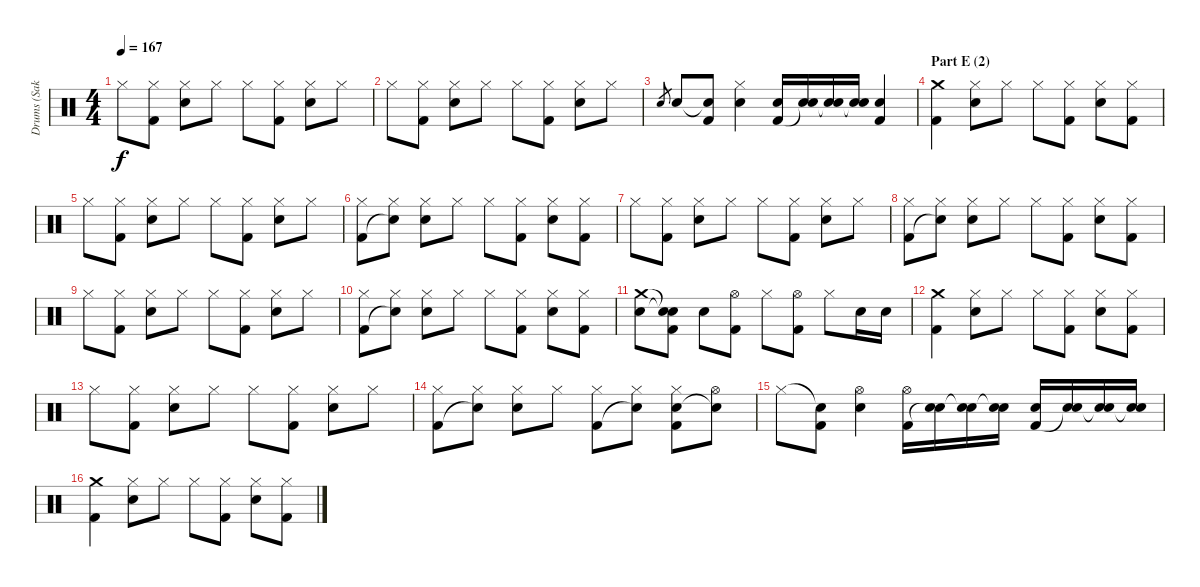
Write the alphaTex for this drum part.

\track ("Drums (Sakura)" "Drums (Sak") {instrument percussion}
\staff {score}
\articulation defaults
\ts (4 4)
\tempo 167
\clef neutral
\ks c "Hi-Hat (closed)".8{dy f}
("Hi-Hat (closed)" "Kick (hit) 2").8 ("Hi-Hat (closed)" "Electric Snare (hit)").8 "Hi-Hat (closed)".8 "Hi-Hat (closed)".8 ("Hi-Hat (closed)" "Kick (hit) 2").8 ("Hi-Hat (closed)" "Electric Snare (hit)").8 "Hi-Hat (closed)".8 |
"Hi-Hat (closed)".8 ("Hi-Hat (closed)" "Kick (hit) 2").8 ("Hi-Hat (closed)" "Electric Snare (hit)").8 "Hi-Hat (closed)".8 "Hi-Hat (closed)".8 ("Hi-Hat (closed)" "Kick (hit) 2").8 ("Hi-Hat (closed)" "Electric Snare (hit)").8 "Hi-Hat (closed)".8 |
"Electric Snare (hit)".8{gr} "Electric Snare (hit)".8 ("Snare (hit)"{t} "Kick (hit) 2").8 ("Hi-Hat (closed)" "Electric Snare (hit)").4 ("Electric Snare (hit)" "Kick (hit) 2").16 ("Electric Snare (hit)" "Snare (hit)"{t}).16 ("Electric Snare (hit)" "Snare (hit)"{t}).16 ("Electric Snare (hit)" "Snare (hit)"{t}).16 ("Electric Snare (hit)" "Kick (hit) 2").4 |
\section ("" "Part E (2)")
("Crash medium (hit)" "Kick (hit) 2").4 ("Hi-Hat (closed)" "Electric Snare (hit)").8 "Hi-Hat (closed)".8 "Hi-Hat (closed)".8 ("Hi-Hat (closed)" "Kick (hit) 2").8 ("Hi-Hat (closed)" "Electric Snare (hit)").8 ("Hi-Hat (closed)" "Kick (hit) 2").8 |
"Hi-Hat (closed)".8 ("Hi-Hat (closed)" "Kick (hit) 2").8 ("Hi-Hat (closed)" "Electric Snare (hit)").8 "Hi-Hat (closed)".8 "Hi-Hat (closed)".8 ("Hi-Hat (closed)" "Kick (hit) 2").8 ("Hi-Hat (closed)" "Electric Snare (hit)").8 "Hi-Hat (closed)".8 |
("Hi-Hat (closed)" "Kick (hit) 2").8 ("Hi-Hat (closed)" "Snare (hit)"{t}).8 ("Hi-Hat (closed)" "Electric Snare (hit)").8 "Hi-Hat (closed)".8 "Hi-Hat (closed)".8 ("Hi-Hat (closed)" "Kick (hit) 2").8 ("Hi-Hat (closed)" "Electric Snare (hit)").8 ("Hi-Hat (closed)" "Kick (hit) 2").8 |
"Hi-Hat (closed)".8 ("Hi-Hat (closed)" "Kick (hit) 2").8 ("Hi-Hat (closed)" "Electric Snare (hit)").8 "Hi-Hat (closed)".8 "Hi-Hat (closed)".8 ("Hi-Hat (closed)" "Kick (hit) 2").8 ("Hi-Hat (closed)" "Electric Snare (hit)").8 "Hi-Hat (closed)".8 |
("Hi-Hat (closed)" "Kick (hit) 2").8 ("Hi-Hat (closed)" "Snare (hit)"{t}).8 ("Hi-Hat (closed)" "Electric Snare (hit)").8 "Hi-Hat (closed)".8 "Hi-Hat (closed)".8 ("Hi-Hat (closed)" "Kick (hit) 2").8 ("Hi-Hat (closed)" "Electric Snare (hit)").8 ("Hi-Hat (closed)" "Kick (hit) 2").8 |
"Hi-Hat (closed)".8 ("Hi-Hat (closed)" "Kick (hit) 2").8 ("Hi-Hat (closed)" "Electric Snare (hit)").8 "Hi-Hat (closed)".8 "Hi-Hat (closed)".8 ("Hi-Hat (closed)" "Kick (hit) 2").8 ("Hi-Hat (closed)" "Electric Snare (hit)").8 "Hi-Hat (closed)".8 |
("Hi-Hat (closed)" "Kick (hit) 2").8 ("Hi-Hat (closed)" "Snare (hit)"{t}).8 ("Hi-Hat (closed)" "Electric Snare (hit)").8 "Hi-Hat (closed)".8 "Hi-Hat (closed)".8 ("Hi-Hat (closed)" "Kick (hit) 2").8 ("Hi-Hat (closed)" "Electric Snare (hit)").8 ("Hi-Hat (closed)" "Kick (hit) 2").8 |
("Crash medium (hit)" "Electric Snare (hit)").8 ("Snare (hit)"{t} "Snare (hit)"{t} "Kick (hit) 2").8 "Electric Snare (hit)".8 ("Hi-Hat (open)" "Kick (hit) 2").8 "Hi-Hat (closed)".8 ("Hi-Hat (open)" "Kick (hit) 2").8 "Hi-Hat (closed)".8 "Electric Snare (hit)".16 "Electric Snare (hit)".16 |
("Crash medium (hit)" "Kick (hit) 2").4 ("Hi-Hat (closed)" "Electric Snare (hit)").8 "Hi-Hat (closed)".8 "Hi-Hat (closed)".8 ("Hi-Hat (closed)" "Kick (hit) 2").8 ("Hi-Hat (closed)" "Electric Snare (hit)").8 ("Hi-Hat (closed)" "Kick (hit) 2").8 |
"Hi-Hat (closed)".8 ("Hi-Hat (closed)" "Kick (hit) 2").8 ("Hi-Hat (closed)" "Electric Snare (hit)").8 "Hi-Hat (closed)".8 "Hi-Hat (closed)".8 ("Hi-Hat (closed)" "Kick (hit) 2").8 ("Hi-Hat (closed)" "Electric Snare (hit)").8 "Hi-Hat (closed)".8 |
("Hi-Hat (closed)" "Kick (hit) 2").8 ("Hi-Hat (closed)" "Snare (hit)"{t}).8 ("Hi-Hat (closed)" "Electric Snare (hit)").8 "Hi-Hat (closed)".8 ("Hi-Hat (closed)" "Kick (hit) 2").8 ("Hi-Hat (closed)" "Snare (hit)"{t}).8 ("Hi-Hat (closed)" "Electric Snare (hit)" "Kick (hit) 2").8 ("Hi-Hat (open)" "Snare (hit)"{t}).8 |
"Hi-Hat (closed)".8 ("Snare (hit)"{t} "Kick (hit) 2").8 ("Hi-Hat (open)" "Electric Snare (hit)").4 ("Hi-Hat (open)" "Kick (hit) 2").16 ("Electric Snare (hit)" "Snare (hit)"{t}).16 ("Electric Snare (hit)" "Snare (hit)"{t}).16 ("Electric Snare (hit)" "Snare (hit)"{t}).16 ("Electric Snare (hit)" "Kick (hit) 2").16 ("Electric Snare (hit)" "Snare (hit)"{t}).16 ("Electric Snare (hit)" "Snare (hit)"{t}).16 ("Electric Snare (hit)" "Snare (hit)"{t}).16 |
("Crash medium (hit)" "Kick (hit) 2").4 ("Hi-Hat (closed)" "Electric Snare (hit)").8 "Hi-Hat (closed)".8 "Hi-Hat (closed)".8 ("Hi-Hat (closed)" "Kick (hit) 2").8 ("Hi-Hat (closed)" "Electric Snare (hit)").8 ("Hi-Hat (closed)" "Kick (hit) 2").8
